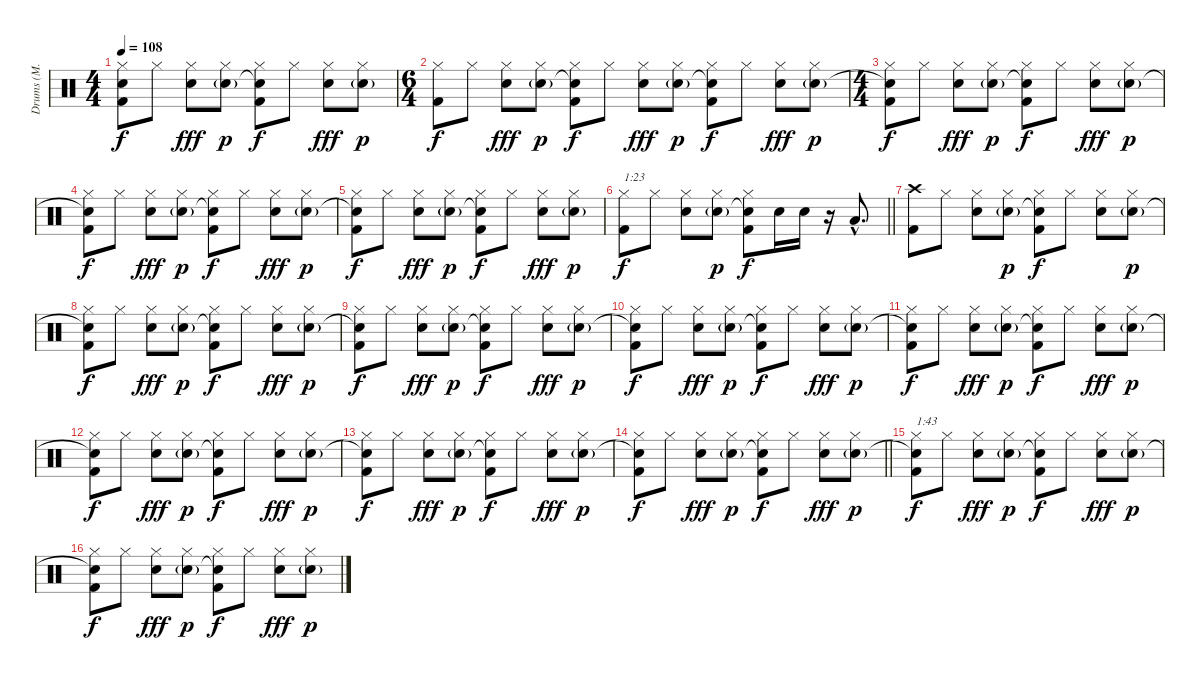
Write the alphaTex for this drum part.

\track ("Drums (M. Chambers)" "Drums (M. ") {instrument percussion}
\staff {score}
\articulation defaults
\ts (4 4)
\tempo 108
\clef neutral
\ks c
("Hi-Hat (closed)" "Snare (hit)"{t} "Kick (hit) 2").8{dy f} "Hi-Hat (closed)".8 ("Hi-Hat (closed)" "Electric Snare (hit)").8{dy fff} ("Hi-Hat (closed)" "Electric Snare (hit)"{g}).8{dy p} ("Hi-Hat (closed)" "Snare (hit)"{t} "Kick (hit) 2").8{dy f} "Hi-Hat (closed)".8 ("Hi-Hat (closed)" "Electric Snare (hit)").8{dy fff} ("Hi-Hat (closed)" "Electric Snare (hit)"{g}).8{dy p} |
\ts (6 4)
("Hi-Hat (closed)" "Kick (hit) 2").8{dy f} "Hi-Hat (closed)".8 ("Hi-Hat (closed)" "Electric Snare (hit)").8{dy fff} ("Hi-Hat (closed)" "Electric Snare (hit)"{g}).8{dy p} ("Hi-Hat (closed)" "Snare (hit)"{t} "Kick (hit) 2").8{dy f} "Hi-Hat (closed)".8 ("Hi-Hat (closed)" "Electric Snare (hit)").8{dy fff} ("Hi-Hat (closed)" "Electric Snare (hit)"{g}).8{dy p} ("Hi-Hat (closed)" "Snare (hit)"{t} "Kick (hit) 2").8{dy f} "Hi-Hat (closed)".8 ("Hi-Hat (closed)" "Electric Snare (hit)").8{dy fff} ("Hi-Hat (closed)" "Electric Snare (hit)"{g}).8{dy p} |
\ts (4 4)
("Hi-Hat (closed)" "Snare (hit)"{t} "Kick (hit) 2").8{dy f} "Hi-Hat (closed)".8 ("Hi-Hat (closed)" "Electric Snare (hit)").8{dy fff} ("Hi-Hat (closed)" "Electric Snare (hit)"{g}).8{dy p} ("Hi-Hat (closed)" "Snare (hit)"{t} "Kick (hit) 2").8{dy f} "Hi-Hat (closed)".8 ("Hi-Hat (closed)" "Electric Snare (hit)").8{dy fff} ("Hi-Hat (closed)" "Electric Snare (hit)"{g}).8{dy p} |
("Hi-Hat (closed)" "Snare (hit)"{t} "Kick (hit) 2").8{dy f} "Hi-Hat (closed)".8 ("Hi-Hat (closed)" "Electric Snare (hit)").8{dy fff} ("Hi-Hat (closed)" "Electric Snare (hit)"{g}).8{dy p} ("Hi-Hat (closed)" "Snare (hit)"{t} "Kick (hit) 2").8{dy f} "Hi-Hat (closed)".8 ("Hi-Hat (closed)" "Electric Snare (hit)").8{dy fff} ("Hi-Hat (closed)" "Electric Snare (hit)"{g}).8{dy p} |
("Hi-Hat (closed)" "Snare (hit)"{t} "Kick (hit) 2").8{dy f} "Hi-Hat (closed)".8 ("Hi-Hat (closed)" "Electric Snare (hit)").8{dy fff} ("Hi-Hat (closed)" "Electric Snare (hit)"{g}).8{dy p} ("Hi-Hat (closed)" "Snare (hit)"{t} "Kick (hit) 2").8{dy f} "Hi-Hat (closed)".8 ("Hi-Hat (closed)" "Electric Snare (hit)").8{dy fff} ("Hi-Hat (closed)" "Electric Snare (hit)"{g}).8{dy p} |
\barLineRight lightlight
("Hi-Hat (closed)" "Kick (hit) 2").8{txt "1:23" dy f} "Hi-Hat (closed)".8 ("Hi-Hat (closed)" "Electric Snare (hit)").8 ("Hi-Hat (closed)" "Electric Snare (hit)"{g}).8{dy p} ("Hi-Hat (closed)" "Snare (hit)"{t} "Kick (hit) 2").8{dy f} "Electric Snare (hit)".16 "Electric Snare (hit)".16 r.16 "Low Tom (hit)"{hac}.8{d} |
("Crash high (hit)" "Kick (hit) 2").8 "Hi-Hat (closed)".8 ("Hi-Hat (closed)" "Electric Snare (hit)").8 ("Hi-Hat (closed)" "Electric Snare (hit)"{g}).8{dy p} ("Hi-Hat (closed)" "Snare (hit)"{t} "Kick (hit) 2").8{dy f} "Hi-Hat (closed)".8 ("Hi-Hat (closed)" "Electric Snare (hit)").8 ("Hi-Hat (closed)" "Electric Snare (hit)"{g}).8{dy p} |
("Hi-Hat (closed)" "Snare (hit)"{t} "Kick (hit) 2").8{dy f} "Hi-Hat (closed)".8 ("Hi-Hat (closed)" "Electric Snare (hit)").8{dy fff} ("Hi-Hat (closed)" "Electric Snare (hit)"{g}).8{dy p} ("Hi-Hat (closed)" "Snare (hit)"{t} "Kick (hit) 2").8{dy f} "Hi-Hat (closed)".8 ("Hi-Hat (closed)" "Electric Snare (hit)").8{dy fff} ("Hi-Hat (closed)" "Electric Snare (hit)"{g}).8{dy p} |
("Hi-Hat (closed)" "Snare (hit)"{t} "Kick (hit) 2").8{dy f} "Hi-Hat (closed)".8 ("Hi-Hat (closed)" "Electric Snare (hit)").8{dy fff} ("Hi-Hat (closed)" "Electric Snare (hit)"{g}).8{dy p} ("Hi-Hat (closed)" "Snare (hit)"{t} "Kick (hit) 2").8{dy f} "Hi-Hat (closed)".8 ("Hi-Hat (closed)" "Electric Snare (hit)").8{dy fff} ("Hi-Hat (closed)" "Electric Snare (hit)"{g}).8{dy p} |
("Hi-Hat (closed)" "Snare (hit)"{t} "Kick (hit) 2").8{dy f} "Hi-Hat (closed)".8 ("Hi-Hat (closed)" "Electric Snare (hit)").8{dy fff} ("Hi-Hat (closed)" "Electric Snare (hit)"{g}).8{dy p} ("Hi-Hat (closed)" "Snare (hit)"{t} "Kick (hit) 2").8{dy f} "Hi-Hat (closed)".8 ("Hi-Hat (closed)" "Electric Snare (hit)").8{dy fff} ("Hi-Hat (closed)" "Electric Snare (hit)"{g}).8{dy p} |
("Hi-Hat (closed)" "Snare (hit)"{t} "Kick (hit) 2").8{dy f} "Hi-Hat (closed)".8 ("Hi-Hat (closed)" "Electric Snare (hit)").8{dy fff} ("Hi-Hat (closed)" "Electric Snare (hit)"{g}).8{dy p} ("Hi-Hat (closed)" "Snare (hit)"{t} "Kick (hit) 2").8{dy f} "Hi-Hat (closed)".8 ("Hi-Hat (closed)" "Electric Snare (hit)").8{dy fff} ("Hi-Hat (closed)" "Electric Snare (hit)"{g}).8{dy p} |
("Hi-Hat (closed)" "Snare (hit)"{t} "Kick (hit) 2").8{dy f} "Hi-Hat (closed)".8 ("Hi-Hat (closed)" "Electric Snare (hit)").8{dy fff} ("Hi-Hat (closed)" "Electric Snare (hit)"{g}).8{dy p} ("Hi-Hat (closed)" "Snare (hit)"{t} "Kick (hit) 2").8{dy f} "Hi-Hat (closed)".8 ("Hi-Hat (closed)" "Electric Snare (hit)").8{dy fff} ("Hi-Hat (closed)" "Electric Snare (hit)"{g}).8{dy p} |
("Hi-Hat (closed)" "Snare (hit)"{t} "Kick (hit) 2").8{dy f} "Hi-Hat (closed)".8 ("Hi-Hat (closed)" "Electric Snare (hit)").8{dy fff} ("Hi-Hat (closed)" "Electric Snare (hit)"{g}).8{dy p} ("Hi-Hat (closed)" "Snare (hit)"{t} "Kick (hit) 2").8{dy f} "Hi-Hat (closed)".8 ("Hi-Hat (closed)" "Electric Snare (hit)").8{dy fff} ("Hi-Hat (closed)" "Electric Snare (hit)"{g}).8{dy p} |
\barLineRight lightlight
("Hi-Hat (closed)" "Snare (hit)"{t} "Kick (hit) 2").8{dy f} "Hi-Hat (closed)".8 ("Hi-Hat (closed)" "Electric Snare (hit)").8{dy fff} ("Hi-Hat (closed)" "Electric Snare (hit)"{g}).8{dy p} ("Hi-Hat (closed)" "Snare (hit)"{t} "Kick (hit) 2").8{dy f} "Hi-Hat (closed)".8 ("Hi-Hat (closed)" "Electric Snare (hit)").8{dy fff} ("Hi-Hat (closed)" "Electric Snare (hit)"{g}).8{dy p} |
("Hi-Hat (closed)" "Snare (hit)"{t} "Kick (hit) 2").8{txt "1:43" dy f} "Hi-Hat (closed)".8 ("Hi-Hat (closed)" "Electric Snare (hit)").8{dy fff} ("Hi-Hat (closed)" "Electric Snare (hit)"{g}).8{dy p} ("Hi-Hat (closed)" "Snare (hit)"{t} "Kick (hit) 2").8{dy f} "Hi-Hat (closed)".8 ("Hi-Hat (closed)" "Electric Snare (hit)").8{dy fff} ("Hi-Hat (closed)" "Electric Snare (hit)"{g}).8{dy p} |
("Hi-Hat (closed)" "Snare (hit)"{t} "Kick (hit) 2").8{dy f} "Hi-Hat (closed)".8 ("Hi-Hat (closed)" "Electric Snare (hit)").8{dy fff} ("Hi-Hat (closed)" "Electric Snare (hit)"{g}).8{dy p} ("Hi-Hat (closed)" "Snare (hit)"{t} "Kick (hit) 2").8{dy f} "Hi-Hat (closed)".8 ("Hi-Hat (closed)" "Electric Snare (hit)").8{dy fff} ("Hi-Hat (closed)" "Electric Snare (hit)"{g}).8{dy p}
